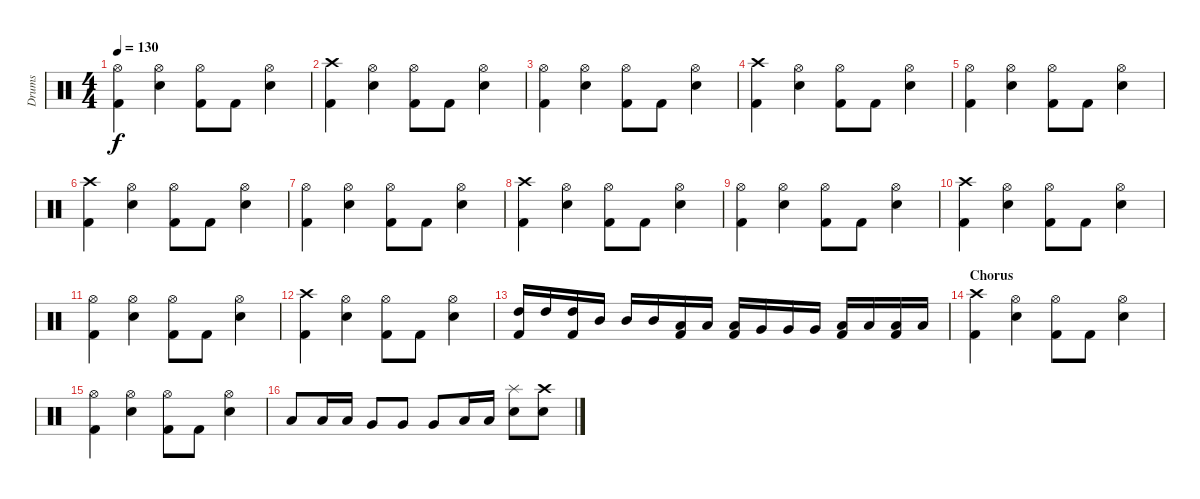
\track ("Drums" "Drums") {instrument percussion}
\staff {score}
\articulation defaults
\ts (4 4)
\tempo 130
\clef neutral
\ks c
("Kick (hit) 2" "Hi-Hat (open)").4{dy f} ("Snare (hit) 2" "Hi-Hat (open)").4 ("Kick (hit) 2" "Hi-Hat (open)").8 "Kick (hit) 2".8 ("Snare (hit) 2" "Hi-Hat (open)").4 |
("Kick (hit) 2" "Crash high (hit)").4 ("Snare (hit) 2" "Hi-Hat (open)").4 ("Kick (hit) 2" "Hi-Hat (open)").8 "Kick (hit) 2".8 ("Snare (hit) 2" "Hi-Hat (open)").4 |
("Kick (hit) 2" "Hi-Hat (open)").4 ("Snare (hit) 2" "Hi-Hat (open)").4 ("Kick (hit) 2" "Hi-Hat (open)").8 "Kick (hit) 2".8 ("Snare (hit) 2" "Hi-Hat (open)").4 |
("Kick (hit) 2" "Crash high (hit)").4 ("Snare (hit) 2" "Hi-Hat (open)").4 ("Kick (hit) 2" "Hi-Hat (open)").8 "Kick (hit) 2".8 ("Snare (hit) 2" "Hi-Hat (open)").4 |
("Kick (hit) 2" "Hi-Hat (open)").4 ("Snare (hit) 2" "Hi-Hat (open)").4 ("Kick (hit) 2" "Hi-Hat (open)").8 "Kick (hit) 2".8 ("Snare (hit) 2" "Hi-Hat (open)").4 |
("Kick (hit) 2" "Crash high (hit)").4 ("Snare (hit) 2" "Hi-Hat (open)").4 ("Kick (hit) 2" "Hi-Hat (open)").8 "Kick (hit) 2".8 ("Snare (hit) 2" "Hi-Hat (open)").4 |
("Kick (hit) 2" "Hi-Hat (open)").4 ("Snare (hit) 2" "Hi-Hat (open)").4 ("Kick (hit) 2" "Hi-Hat (open)").8 "Kick (hit) 2".8 ("Snare (hit) 2" "Hi-Hat (open)").4 |
("Kick (hit) 2" "Crash high (hit)").4 ("Snare (hit) 2" "Hi-Hat (open)").4 ("Kick (hit) 2" "Hi-Hat (open)").8 "Kick (hit) 2".8 ("Snare (hit) 2" "Hi-Hat (open)").4 |
("Kick (hit) 2" "Hi-Hat (open)").4 ("Snare (hit) 2" "Hi-Hat (open)").4 ("Kick (hit) 2" "Hi-Hat (open)").8 "Kick (hit) 2".8 ("Snare (hit) 2" "Hi-Hat (open)").4 |
("Kick (hit) 2" "Crash high (hit)").4 ("Snare (hit) 2" "Hi-Hat (open)").4 ("Kick (hit) 2" "Hi-Hat (open)").8 "Kick (hit) 2".8 ("Snare (hit) 2" "Hi-Hat (open)").4 |
("Kick (hit) 2" "Hi-Hat (open)").4 ("Snare (hit) 2" "Hi-Hat (open)").4 ("Kick (hit) 2" "Hi-Hat (open)").8 "Kick (hit) 2".8 ("Snare (hit) 2" "Hi-Hat (open)").4 |
("Kick (hit) 2" "Crash high (hit)").4 ("Snare (hit) 2" "Hi-Hat (open)").4 ("Kick (hit) 2" "Hi-Hat (open)").8 "Kick (hit) 2".8 ("Snare (hit) 2" "Hi-Hat (open)").4 |
("High Tom (hit)" "Kick (hit) 2").16 "High Tom (hit)".16 ("High Tom (hit)" "Kick (hit) 2").16 "Mid Tom (hit)".16 "Mid Tom (hit)".16 "Mid Tom (hit)".16 ("Low Tom (hit)" "Kick (hit) 2").16 "Low Tom (hit)".16 ("Low Tom (hit)" "Kick (hit) 2").16 "Very Low Tom (hit)".16 "Very Low Tom (hit)".16 "Very Low Tom (hit)".16 ("Low Floor Tom (hit)" "Kick (hit) 2").16 "Low Floor Tom (hit)".16 ("Low Floor Tom (hit)" "Kick (hit) 2").16 "Low Floor Tom (hit)".16 |
\section ("" "Chorus")
("Kick (hit) 2" "Crash high (hit)").4 ("Snare (hit) 2" "Hi-Hat (open)").4 ("Kick (hit) 2" "Hi-Hat (open)").8 "Kick (hit) 2".8 ("Snare (hit) 2" "Hi-Hat (open)").4 |
("Kick (hit) 2" "Hi-Hat (open)").4 ("Snare (hit) 2" "Hi-Hat (open)").4 ("Kick (hit) 2" "Hi-Hat (open)").8 "Kick (hit) 2".8 ("Snare (hit) 2" "Hi-Hat (open)").4 |
"Low Tom (hit)".8 "Low Tom (hit)".16 "Low Tom (hit)".16 "Very Low Tom (hit)".8 "Very Low Tom (hit)".8 "Very Low Tom (hit)".8 "Low Floor Tom (hit)".16 "Low Floor Tom (hit)".16 ("Splash (hit)" "Snare (hit) 2").8 ("Crash high (hit)" "Snare (hit) 2").8
